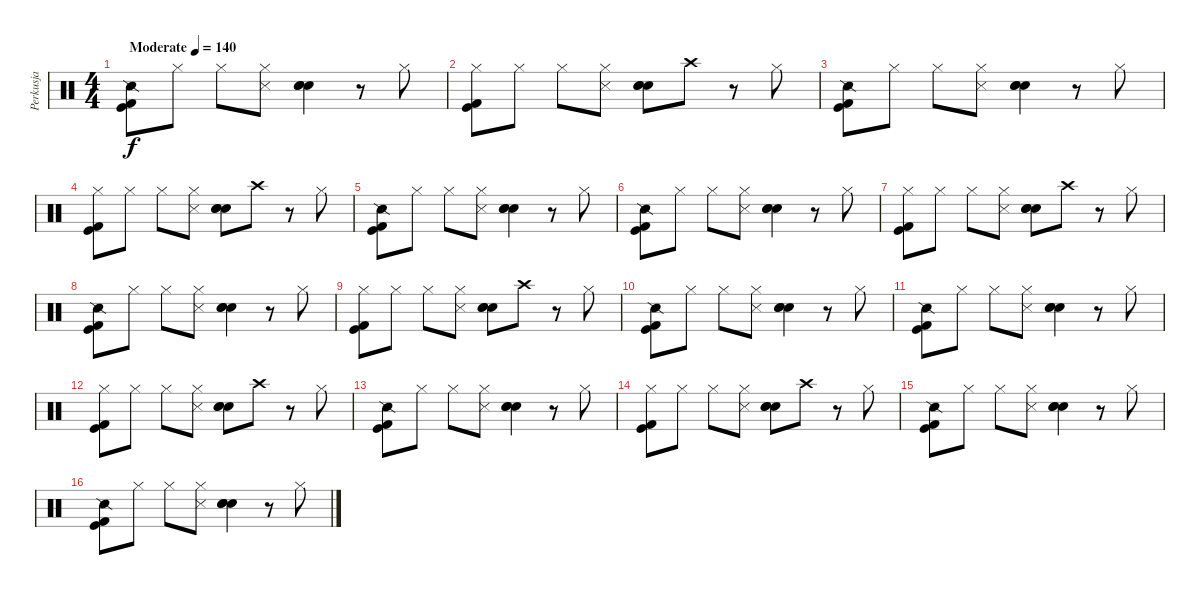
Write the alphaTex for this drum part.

\track ("Perkusja" "Perkusja") {instrument percussion}
\staff {score}
\articulation defaults
\ts (4 4)
\tempo (140 "Moderate")
\clef neutral
\ks c
("Kick (hit)" "Kick (hit) 2" "Snare (side stick) 2").8{dy f} "Hi-Hat (closed)".8 "Hi-Hat (closed)".8 ("Hi-Hat (closed)" "Snare (side stick) 3").8 ("Snare (hit) 2" "Electric Snare (hit)" "Hand Clap (hit)").4 r.8 "Hi-Hat (closed)".8 |
("Kick (hit)" "Kick (hit) 2" "Hi-Hat (closed)").8 "Hi-Hat (closed)".8 "Hi-Hat (closed)".8 ("Hi-Hat (closed)" "Snare (side stick) 3").8 ("Snare (hit) 2" "Electric Snare (hit)" "Hand Clap (hit)").8 "Crash high (hit)".8 r.8 "Hi-Hat (closed)".8 |
("Kick (hit)" "Kick (hit) 2" "Snare (side stick) 2").8 "Hi-Hat (closed)".8 "Hi-Hat (closed)".8 ("Hi-Hat (closed)" "Snare (side stick) 3").8 ("Snare (hit) 2" "Electric Snare (hit)" "Hand Clap (hit)").4 r.8 "Hi-Hat (closed)".8 |
("Kick (hit)" "Kick (hit) 2" "Hi-Hat (closed)").8 "Hi-Hat (closed)".8 "Hi-Hat (closed)".8 ("Hi-Hat (closed)" "Snare (side stick) 3").8 ("Snare (hit) 2" "Electric Snare (hit)" "Hand Clap (hit)").8 "Crash high (hit)".8 r.8 "Hi-Hat (closed)".8 |
("Kick (hit)" "Kick (hit) 2" "Snare (side stick) 2").8 "Hi-Hat (closed)".8 "Hi-Hat (closed)".8 ("Hi-Hat (closed)" "Snare (side stick) 3").8 ("Snare (hit) 2" "Electric Snare (hit)" "Hand Clap (hit)").4 r.8 "Hi-Hat (closed)".8 |
("Kick (hit)" "Kick (hit) 2" "Snare (side stick) 2").8 "Hi-Hat (closed)".8 "Hi-Hat (closed)".8 ("Hi-Hat (closed)" "Snare (side stick) 3").8 ("Snare (hit) 2" "Electric Snare (hit)" "Hand Clap (hit)").4 r.8 "Hi-Hat (closed)".8 |
("Kick (hit)" "Kick (hit) 2" "Hi-Hat (closed)").8 "Hi-Hat (closed)".8 "Hi-Hat (closed)".8 ("Hi-Hat (closed)" "Snare (side stick) 3").8 ("Snare (hit) 2" "Electric Snare (hit)" "Hand Clap (hit)").8 "Crash high (hit)".8 r.8 "Hi-Hat (closed)".8 |
("Kick (hit)" "Kick (hit) 2" "Snare (side stick) 2").8 "Hi-Hat (closed)".8 "Hi-Hat (closed)".8 ("Hi-Hat (closed)" "Snare (side stick) 3").8 ("Snare (hit) 2" "Electric Snare (hit)" "Hand Clap (hit)").4 r.8 "Hi-Hat (closed)".8 |
("Kick (hit)" "Kick (hit) 2" "Hi-Hat (closed)").8 "Hi-Hat (closed)".8 "Hi-Hat (closed)".8 ("Hi-Hat (closed)" "Snare (side stick) 3").8 ("Snare (hit) 2" "Electric Snare (hit)" "Hand Clap (hit)").8 "Crash high (hit)".8 r.8 "Hi-Hat (closed)".8 |
("Kick (hit)" "Kick (hit) 2" "Snare (side stick) 2").8 "Hi-Hat (closed)".8 "Hi-Hat (closed)".8 ("Hi-Hat (closed)" "Snare (side stick) 3").8 ("Snare (hit) 2" "Electric Snare (hit)" "Hand Clap (hit)").4 r.8 "Hi-Hat (closed)".8 |
("Kick (hit)" "Kick (hit) 2" "Snare (side stick) 2").8 "Hi-Hat (closed)".8 "Hi-Hat (closed)".8 ("Hi-Hat (closed)" "Snare (side stick) 3").8 ("Snare (hit) 2" "Electric Snare (hit)" "Hand Clap (hit)").4 r.8 "Hi-Hat (closed)".8 |
("Kick (hit)" "Kick (hit) 2" "Hi-Hat (closed)").8 "Hi-Hat (closed)".8 "Hi-Hat (closed)".8 ("Hi-Hat (closed)" "Snare (side stick) 3").8 ("Snare (hit) 2" "Electric Snare (hit)" "Hand Clap (hit)").8 "Crash high (hit)".8 r.8 "Hi-Hat (closed)".8 |
("Kick (hit)" "Kick (hit) 2" "Snare (side stick) 2").8 "Hi-Hat (closed)".8 "Hi-Hat (closed)".8 ("Hi-Hat (closed)" "Snare (side stick) 3").8 ("Snare (hit) 2" "Electric Snare (hit)" "Hand Clap (hit)").4 r.8 "Hi-Hat (closed)".8 |
("Kick (hit)" "Kick (hit) 2" "Hi-Hat (closed)").8 "Hi-Hat (closed)".8 "Hi-Hat (closed)".8 ("Hi-Hat (closed)" "Snare (side stick) 3").8 ("Snare (hit) 2" "Electric Snare (hit)" "Hand Clap (hit)").8 "Crash high (hit)".8 r.8 "Hi-Hat (closed)".8 |
("Kick (hit)" "Kick (hit) 2" "Snare (side stick) 2").8 "Hi-Hat (closed)".8 "Hi-Hat (closed)".8 ("Hi-Hat (closed)" "Snare (side stick) 3").8 ("Snare (hit) 2" "Electric Snare (hit)" "Hand Clap (hit)").4 r.8 "Hi-Hat (closed)".8 |
("Kick (hit)" "Kick (hit) 2" "Snare (side stick) 2").8 "Hi-Hat (closed)".8 "Hi-Hat (closed)".8 ("Hi-Hat (closed)" "Snare (side stick) 3").8 ("Snare (hit) 2" "Electric Snare (hit)" "Hand Clap (hit)").4 r.8 "Hi-Hat (closed)".8
